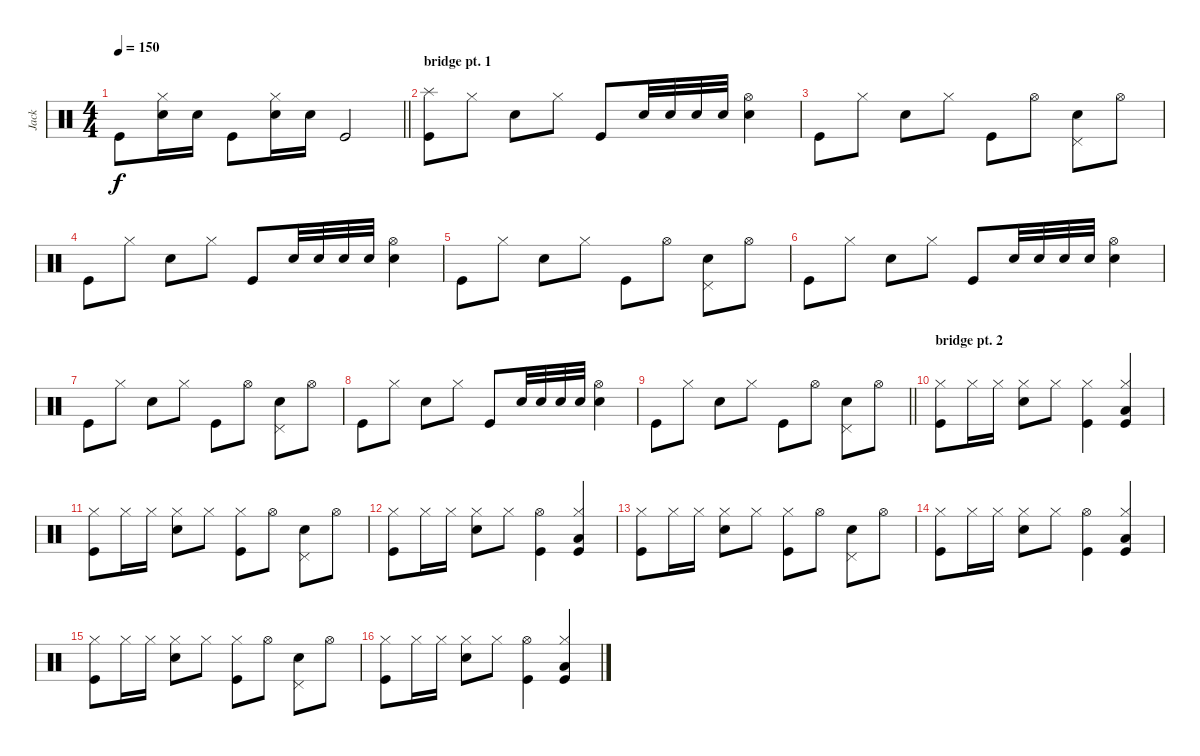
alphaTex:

\track ("Jack" "Jack") {instrument percussion}
\staff {score}
\articulation defaults
\ts (4 4)
\tempo 150
\clef neutral
\barLineRight lightlight
\ks c "Kick (hit)".8{dy f}
("Hi-Hat (closed)" "Electric Snare (hit)").16 "Electric Snare (hit)".16 "Kick (hit)".8 ("Hi-Hat (closed)" "Electric Snare (hit)").16 "Electric Snare (hit)".16 "Kick (hit)".2 |
\section ("" "bridge pt. 1")
("Splash (hit)" "Kick (hit)").8 "Hi-Hat (closed)".8 "Electric Snare (hit)".8 "Hi-Hat (closed)".8 "Kick (hit)".8 "Electric Snare (hit)".32 "Electric Snare (hit)".32 "Electric Snare (hit)".32 "Electric Snare (hit)".32 ("Hi-Hat (open)" "Electric Snare (hit)").4 |
"Kick (hit)".8 "Hi-Hat (closed)".8 "Electric Snare (hit)".8 "Hi-Hat (closed)".8 "Kick (hit)".8 "Hi-Hat (open)".8 ("Pedal Hi-Hat (hit)" "Electric Snare (hit)").8 "Hi-Hat (open)".8 |
"Kick (hit)".8 "Hi-Hat (closed)".8 "Electric Snare (hit)".8 "Hi-Hat (closed)".8 "Kick (hit)".8 "Electric Snare (hit)".32 "Electric Snare (hit)".32 "Electric Snare (hit)".32 "Electric Snare (hit)".32 ("Hi-Hat (open)" "Electric Snare (hit)").4 |
"Kick (hit)".8 "Hi-Hat (closed)".8 "Electric Snare (hit)".8 "Hi-Hat (closed)".8 "Kick (hit)".8 "Hi-Hat (open)".8 ("Pedal Hi-Hat (hit)" "Electric Snare (hit)").8 "Hi-Hat (open)".8 |
"Kick (hit)".8 "Hi-Hat (closed)".8 "Electric Snare (hit)".8 "Hi-Hat (closed)".8 "Kick (hit)".8 "Electric Snare (hit)".32 "Electric Snare (hit)".32 "Electric Snare (hit)".32 "Electric Snare (hit)".32 ("Hi-Hat (open)" "Electric Snare (hit)").4 |
"Kick (hit)".8 "Hi-Hat (closed)".8 "Electric Snare (hit)".8 "Hi-Hat (closed)".8 "Kick (hit)".8 "Hi-Hat (open)".8 ("Pedal Hi-Hat (hit)" "Electric Snare (hit)").8 "Hi-Hat (open)".8 |
"Kick (hit)".8 "Hi-Hat (closed)".8 "Electric Snare (hit)".8 "Hi-Hat (closed)".8 "Kick (hit)".8 "Electric Snare (hit)".32 "Electric Snare (hit)".32 "Electric Snare (hit)".32 "Electric Snare (hit)".32 ("Hi-Hat (open)" "Electric Snare (hit)").4 |
\barLineRight lightlight "Kick (hit)".8 "Hi-Hat (closed)".8 "Electric Snare (hit)".8 "Hi-Hat (closed)".8 "Kick (hit)".8 "Hi-Hat (open)".8
("Pedal Hi-Hat (hit)" "Electric Snare (hit)").8 "Hi-Hat (open)".8 |
\section ("" "bridge pt. 2")
("Hi-Hat (closed)" "Kick (hit)").8 "Hi-Hat (closed)".16 "Hi-Hat (closed)".16 ("Hi-Hat (closed)" "Electric Snare (hit)").8 "Hi-Hat (closed)".8 ("Hi-Hat (closed)" "Kick (hit)").4 ("Hi-Hat (closed)" "Low Floor Tom (hit)" "Kick (hit)").4 |
("Hi-Hat (closed)" "Kick (hit)").8 "Hi-Hat (closed)".16 "Hi-Hat (closed)".16 ("Hi-Hat (closed)" "Electric Snare (hit)").8 "Hi-Hat (closed)".8 ("Hi-Hat (closed)" "Kick (hit)").8 "Hi-Hat (open)".8 ("Pedal Hi-Hat (hit)" "Electric Snare (hit)").8 "Hi-Hat (open)".8 |
("Hi-Hat (closed)" "Kick (hit)").8 "Hi-Hat (closed)".16 "Hi-Hat (closed)".16 ("Hi-Hat (closed)" "Electric Snare (hit)").8 "Hi-Hat (closed)".8 ("Hi-Hat (open)" "Kick (hit)").4 ("Hi-Hat (closed)" "Low Floor Tom (hit)" "Kick (hit)").4 |
("Hi-Hat (closed)" "Kick (hit)").8 "Hi-Hat (closed)".16 "Hi-Hat (closed)".16 ("Hi-Hat (closed)" "Electric Snare (hit)").8 "Hi-Hat (closed)".8 ("Hi-Hat (closed)" "Kick (hit)").8 "Hi-Hat (open)".8 ("Pedal Hi-Hat (hit)" "Electric Snare (hit)").8 "Hi-Hat (open)".8 |
("Hi-Hat (closed)" "Kick (hit)").8 "Hi-Hat (closed)".16 "Hi-Hat (closed)".16 ("Hi-Hat (closed)" "Electric Snare (hit)").8 "Hi-Hat (closed)".8 ("Hi-Hat (open)" "Kick (hit)").4 ("Hi-Hat (closed)" "Low Floor Tom (hit)" "Kick (hit)").4 |
("Hi-Hat (closed)" "Kick (hit)").8 "Hi-Hat (closed)".16 "Hi-Hat (closed)".16 ("Hi-Hat (closed)" "Electric Snare (hit)").8 "Hi-Hat (closed)".8 ("Hi-Hat (closed)" "Kick (hit)").8 "Hi-Hat (open)".8 ("Pedal Hi-Hat (hit)" "Electric Snare (hit)").8 "Hi-Hat (open)".8 |
("Hi-Hat (closed)" "Kick (hit)").8 "Hi-Hat (closed)".16 "Hi-Hat (closed)".16 ("Hi-Hat (closed)" "Electric Snare (hit)").8 "Hi-Hat (closed)".8 ("Hi-Hat (open)" "Kick (hit)").4 ("Hi-Hat (closed)" "Low Floor Tom (hit)" "Kick (hit)").4
